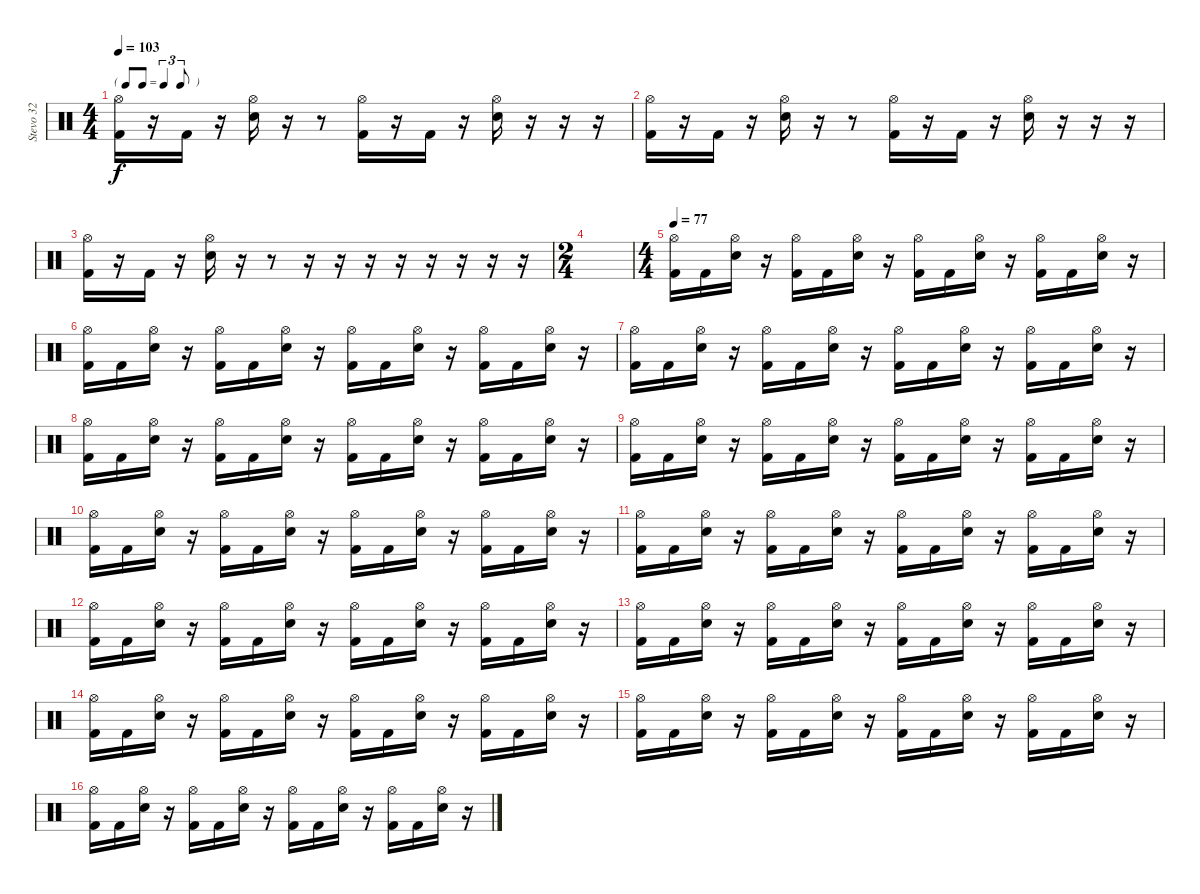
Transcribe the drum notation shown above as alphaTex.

\track ("Stevo 32" "Stevo 32") {instrument percussion}
\staff {score}
\articulation defaults
\ts (4 4)
\tf triplet8th
\tempo 103
\clef neutral
\ks c
("Hi-Hat (open)" "Kick (hit) 2").16{dy f} r.16 "Kick (hit) 2".16 r.16 ("Hi-Hat (open)" "Electric Snare (hit)").16 r.16 r.8 ("Hi-Hat (open)" "Kick (hit) 2").16 r.16 "Kick (hit) 2".16 r.16 ("Hi-Hat (open)" "Electric Snare (hit)").16 r.16 r.16 r.16 |
("Hi-Hat (open)" "Kick (hit) 2").16 r.16 "Kick (hit) 2".16 r.16 ("Hi-Hat (open)" "Electric Snare (hit)").16 r.16 r.8 ("Hi-Hat (open)" "Kick (hit) 2").16 r.16 "Kick (hit) 2".16 r.16 ("Hi-Hat (open)" "Electric Snare (hit)").16 r.16 r.16 r.16 |
("Hi-Hat (open)" "Kick (hit) 2").16 r.16 "Kick (hit) 2".16 r.16 ("Hi-Hat (open)" "Electric Snare (hit)").16 r.16 r.8 r.16 r.16 r.16 r.16 r.16 r.16 r.16 r.16 |
\ts (2 4)
|
\ts (4 4)
\tempo 74
\tempo 77
("Hi-Hat (open)" "Kick (hit) 2").16 "Kick (hit) 2".16 ("Hi-Hat (open)" "Electric Snare (hit)").16 r.16 ("Hi-Hat (open)" "Kick (hit) 2").16 "Kick (hit) 2".16 ("Hi-Hat (open)" "Electric Snare (hit)").16 r.16 ("Hi-Hat (open)" "Kick (hit) 2").16 "Kick (hit) 2".16 ("Hi-Hat (open)" "Electric Snare (hit)").16 r.16 ("Hi-Hat (open)" "Kick (hit) 2").16 "Kick (hit) 2".16 ("Hi-Hat (open)" "Electric Snare (hit)").16 r.16 |
("Hi-Hat (open)" "Kick (hit) 2").16 "Kick (hit) 2".16 ("Hi-Hat (open)" "Electric Snare (hit)").16 r.16 ("Hi-Hat (open)" "Kick (hit) 2").16 "Kick (hit) 2".16 ("Hi-Hat (open)" "Electric Snare (hit)").16 r.16 ("Hi-Hat (open)" "Kick (hit) 2").16 "Kick (hit) 2".16 ("Hi-Hat (open)" "Electric Snare (hit)").16 r.16 ("Hi-Hat (open)" "Kick (hit) 2").16 "Kick (hit) 2".16 ("Hi-Hat (open)" "Electric Snare (hit)").16 r.16 |
("Hi-Hat (open)" "Kick (hit) 2").16 "Kick (hit) 2".16 ("Hi-Hat (open)" "Electric Snare (hit)").16 r.16 ("Hi-Hat (open)" "Kick (hit) 2").16 "Kick (hit) 2".16 ("Hi-Hat (open)" "Electric Snare (hit)").16 r.16 ("Hi-Hat (open)" "Kick (hit) 2").16 "Kick (hit) 2".16 ("Hi-Hat (open)" "Electric Snare (hit)").16 r.16 ("Hi-Hat (open)" "Kick (hit) 2").16 "Kick (hit) 2".16 ("Hi-Hat (open)" "Electric Snare (hit)").16 r.16 |
("Hi-Hat (open)" "Kick (hit) 2").16 "Kick (hit) 2".16 ("Hi-Hat (open)" "Electric Snare (hit)").16 r.16 ("Hi-Hat (open)" "Kick (hit) 2").16 "Kick (hit) 2".16 ("Hi-Hat (open)" "Electric Snare (hit)").16 r.16 ("Hi-Hat (open)" "Kick (hit) 2").16 "Kick (hit) 2".16 ("Hi-Hat (open)" "Electric Snare (hit)").16 r.16 ("Hi-Hat (open)" "Kick (hit) 2").16 "Kick (hit) 2".16 ("Hi-Hat (open)" "Electric Snare (hit)").16 r.16 |
("Hi-Hat (open)" "Kick (hit) 2").16 "Kick (hit) 2".16 ("Hi-Hat (open)" "Electric Snare (hit)").16 r.16 ("Hi-Hat (open)" "Kick (hit) 2").16 "Kick (hit) 2".16 ("Hi-Hat (open)" "Electric Snare (hit)").16 r.16 ("Hi-Hat (open)" "Kick (hit) 2").16 "Kick (hit) 2".16 ("Hi-Hat (open)" "Electric Snare (hit)").16 r.16 ("Hi-Hat (open)" "Kick (hit) 2").16 "Kick (hit) 2".16 ("Hi-Hat (open)" "Electric Snare (hit)").16 r.16 |
("Hi-Hat (open)" "Kick (hit) 2").16 "Kick (hit) 2".16 ("Hi-Hat (open)" "Electric Snare (hit)").16 r.16 ("Hi-Hat (open)" "Kick (hit) 2").16 "Kick (hit) 2".16 ("Hi-Hat (open)" "Electric Snare (hit)").16 r.16 ("Hi-Hat (open)" "Kick (hit) 2").16 "Kick (hit) 2".16 ("Hi-Hat (open)" "Electric Snare (hit)").16 r.16 ("Hi-Hat (open)" "Kick (hit) 2").16 "Kick (hit) 2".16 ("Hi-Hat (open)" "Electric Snare (hit)").16 r.16 |
("Hi-Hat (open)" "Kick (hit) 2").16 "Kick (hit) 2".16 ("Hi-Hat (open)" "Electric Snare (hit)").16 r.16 ("Hi-Hat (open)" "Kick (hit) 2").16 "Kick (hit) 2".16 ("Hi-Hat (open)" "Electric Snare (hit)").16 r.16 ("Hi-Hat (open)" "Kick (hit) 2").16 "Kick (hit) 2".16 ("Hi-Hat (open)" "Electric Snare (hit)").16 r.16 ("Hi-Hat (open)" "Kick (hit) 2").16 "Kick (hit) 2".16 ("Hi-Hat (open)" "Electric Snare (hit)").16 r.16 |
("Hi-Hat (open)" "Kick (hit) 2").16 "Kick (hit) 2".16 ("Hi-Hat (open)" "Electric Snare (hit)").16 r.16 ("Hi-Hat (open)" "Kick (hit) 2").16 "Kick (hit) 2".16 ("Hi-Hat (open)" "Electric Snare (hit)").16 r.16 ("Hi-Hat (open)" "Kick (hit) 2").16 "Kick (hit) 2".16 ("Hi-Hat (open)" "Electric Snare (hit)").16 r.16 ("Hi-Hat (open)" "Kick (hit) 2").16 "Kick (hit) 2".16 ("Hi-Hat (open)" "Electric Snare (hit)").16 r.16 |
("Hi-Hat (open)" "Kick (hit) 2").16 "Kick (hit) 2".16 ("Hi-Hat (open)" "Electric Snare (hit)").16 r.16 ("Hi-Hat (open)" "Kick (hit) 2").16 "Kick (hit) 2".16 ("Hi-Hat (open)" "Electric Snare (hit)").16 r.16 ("Hi-Hat (open)" "Kick (hit) 2").16 "Kick (hit) 2".16 ("Hi-Hat (open)" "Electric Snare (hit)").16 r.16 ("Hi-Hat (open)" "Kick (hit) 2").16 "Kick (hit) 2".16 ("Hi-Hat (open)" "Electric Snare (hit)").16 r.16 |
("Hi-Hat (open)" "Kick (hit) 2").16 "Kick (hit) 2".16 ("Hi-Hat (open)" "Electric Snare (hit)").16 r.16 ("Hi-Hat (open)" "Kick (hit) 2").16 "Kick (hit) 2".16 ("Hi-Hat (open)" "Electric Snare (hit)").16 r.16 ("Hi-Hat (open)" "Kick (hit) 2").16 "Kick (hit) 2".16 ("Hi-Hat (open)" "Electric Snare (hit)").16 r.16 ("Hi-Hat (open)" "Kick (hit) 2").16 "Kick (hit) 2".16 ("Hi-Hat (open)" "Electric Snare (hit)").16 r.16 |
("Hi-Hat (open)" "Kick (hit) 2").16 "Kick (hit) 2".16 ("Hi-Hat (open)" "Electric Snare (hit)").16 r.16 ("Hi-Hat (open)" "Kick (hit) 2").16 "Kick (hit) 2".16 ("Hi-Hat (open)" "Electric Snare (hit)").16 r.16 ("Hi-Hat (open)" "Kick (hit) 2").16 "Kick (hit) 2".16 ("Hi-Hat (open)" "Electric Snare (hit)").16 r.16 ("Hi-Hat (open)" "Kick (hit) 2").16 "Kick (hit) 2".16 ("Hi-Hat (open)" "Electric Snare (hit)").16 r.16 |
("Hi-Hat (open)" "Kick (hit) 2").16 "Kick (hit) 2".16 ("Hi-Hat (open)" "Electric Snare (hit)").16 r.16 ("Hi-Hat (open)" "Kick (hit) 2").16 "Kick (hit) 2".16 ("Hi-Hat (open)" "Electric Snare (hit)").16 r.16 ("Hi-Hat (open)" "Kick (hit) 2").16 "Kick (hit) 2".16 ("Hi-Hat (open)" "Electric Snare (hit)").16 r.16 ("Hi-Hat (open)" "Kick (hit) 2").16 "Kick (hit) 2".16 ("Hi-Hat (open)" "Electric Snare (hit)").16 r.16
